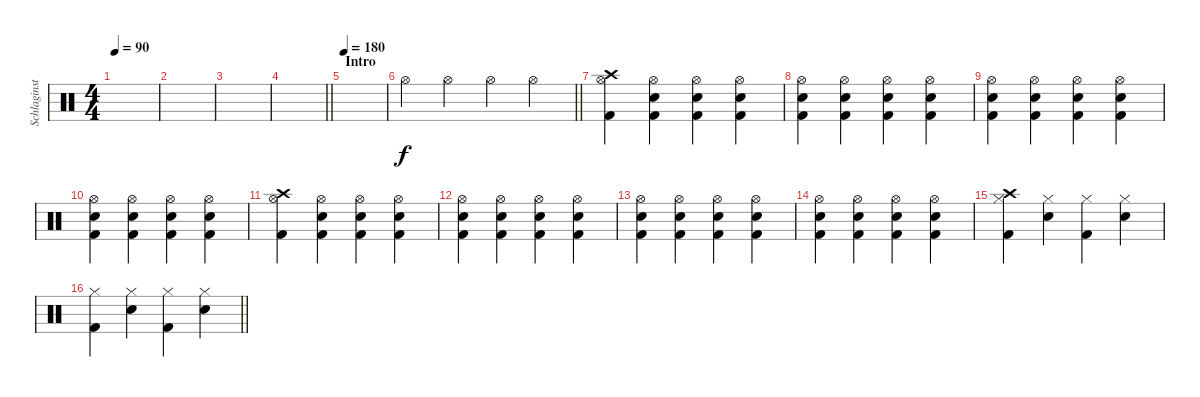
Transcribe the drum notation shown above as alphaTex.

\track ("Schlaginstrumente - Auswahl" "Schlaginst") {instrument percussion}
\staff {score}
\articulation defaults
\ts (4 4)
\tempo 90
\clef neutral
\ks c
|
|
|
\barLineRight lightlight
|
\section ("" "Intro")
\tempo 180
|
\barLineRight lightlight "Hi-Hat (open)".4 "Hi-Hat (open)".4 "Hi-Hat (open)".4 "Hi-Hat (open)".4
|
("Crash high (hit)" "Hi-Hat (open)" "Kick (hit) 2").4 ("Hi-Hat (open)" "Electric Snare (hit)" "Kick (hit) 2").4 ("Hi-Hat (open)" "Electric Snare (hit)" "Kick (hit) 2").4 ("Hi-Hat (open)" "Electric Snare (hit)" "Kick (hit) 2").4 |
("Hi-Hat (open)" "Electric Snare (hit)" "Kick (hit) 2").4 ("Hi-Hat (open)" "Electric Snare (hit)" "Kick (hit) 2").4 ("Hi-Hat (open)" "Electric Snare (hit)" "Kick (hit) 2").4 ("Hi-Hat (open)" "Electric Snare (hit)" "Kick (hit) 2").4 |
("Hi-Hat (open)" "Electric Snare (hit)" "Kick (hit) 2").4 ("Hi-Hat (open)" "Electric Snare (hit)" "Kick (hit) 2").4 ("Hi-Hat (open)" "Electric Snare (hit)" "Kick (hit) 2").4 ("Hi-Hat (open)" "Electric Snare (hit)" "Kick (hit) 2").4 |
("Hi-Hat (open)" "Electric Snare (hit)" "Kick (hit) 2").4 ("Hi-Hat (open)" "Electric Snare (hit)" "Kick (hit) 2").4 ("Hi-Hat (open)" "Electric Snare (hit)" "Kick (hit) 2").4 ("Hi-Hat (open)" "Electric Snare (hit)" "Kick (hit) 2").4 |
("Crash high (hit)" "Hi-Hat (open)" "Kick (hit) 2").4 ("Hi-Hat (open)" "Electric Snare (hit)" "Kick (hit) 2").4 ("Hi-Hat (open)" "Electric Snare (hit)" "Kick (hit) 2").4 ("Hi-Hat (open)" "Electric Snare (hit)" "Kick (hit) 2").4 |
("Hi-Hat (open)" "Electric Snare (hit)" "Kick (hit) 2").4 ("Hi-Hat (open)" "Electric Snare (hit)" "Kick (hit) 2").4 ("Hi-Hat (open)" "Electric Snare (hit)" "Kick (hit) 2").4 ("Hi-Hat (open)" "Electric Snare (hit)" "Kick (hit) 2").4 |
("Hi-Hat (open)" "Electric Snare (hit)" "Kick (hit) 2").4 ("Hi-Hat (open)" "Electric Snare (hit)" "Kick (hit) 2").4 ("Hi-Hat (open)" "Electric Snare (hit)" "Kick (hit) 2").4 ("Hi-Hat (open)" "Electric Snare (hit)" "Kick (hit) 2").4 |
("Hi-Hat (open)" "Electric Snare (hit)" "Kick (hit) 2").4 ("Hi-Hat (open)" "Electric Snare (hit)" "Kick (hit) 2").4 ("Hi-Hat (open)" "Electric Snare (hit)" "Kick (hit) 2").4 ("Hi-Hat (open)" "Electric Snare (hit)" "Kick (hit) 2").4 |
("Crash high (hit)" "Hi-Hat (closed)" "Kick (hit) 2").4 ("Hi-Hat (closed)" "Electric Snare (hit)").4 ("Hi-Hat (closed)" "Kick (hit) 2").4 ("Hi-Hat (closed)" "Electric Snare (hit)").4 |
\barLineRight lightlight
("Hi-Hat (closed)" "Kick (hit) 2").4 ("Hi-Hat (closed)" "Electric Snare (hit)").4 ("Hi-Hat (closed)" "Kick (hit) 2").4 ("Hi-Hat (closed)" "Electric Snare (hit)").4
